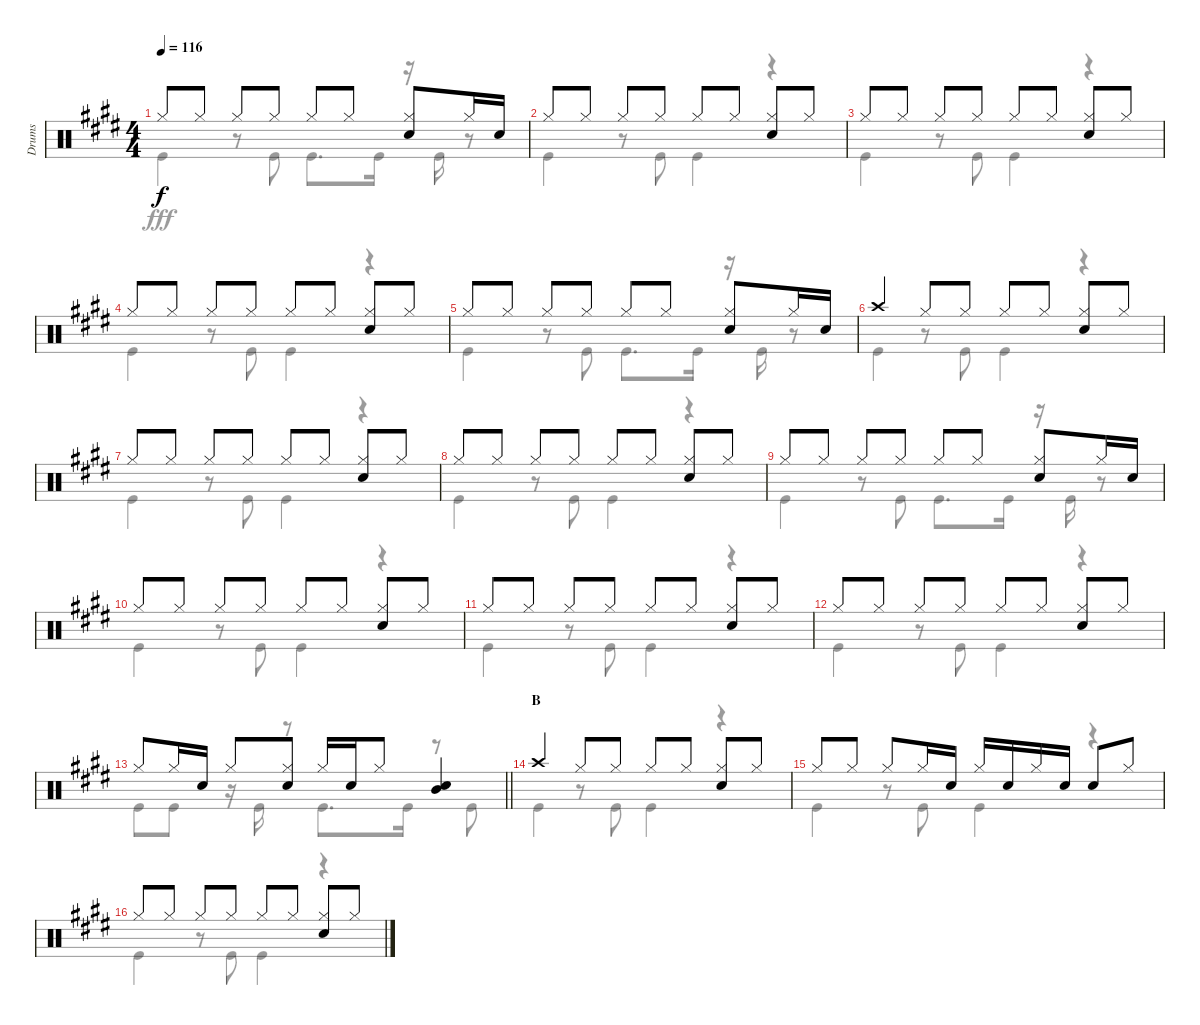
\track ("Drums" "Drums") {instrument percussion}
\staff {score}
\articulation defaults
\voice
\ts (4 4)
\tempo 116
\clef neutral
\ks e "Hi-Hat (closed)".8{dy f} "Hi-Hat (closed)".8 "Hi-Hat (closed)".8 "Hi-Hat (closed)".8 "Hi-Hat (closed)".8 "Hi-Hat (closed)".8
("Hi-Hat (closed)" "Snare (hit) 2").8 "Hi-Hat (closed)".16 "Snare (hit) 2".16 |
"Hi-Hat (closed)".8 "Hi-Hat (closed)".8 "Hi-Hat (closed)".8 "Hi-Hat (closed)".8 "Hi-Hat (closed)".8 "Hi-Hat (closed)".8 ("Hi-Hat (closed)" "Snare (hit) 2").8 "Hi-Hat (closed)".8 |
"Hi-Hat (closed)".8 "Hi-Hat (closed)".8 "Hi-Hat (closed)".8 "Hi-Hat (closed)".8 "Hi-Hat (closed)".8 "Hi-Hat (closed)".8 ("Hi-Hat (closed)" "Snare (hit) 2").8 "Hi-Hat (closed)".8 |
"Hi-Hat (closed)".8 "Hi-Hat (closed)".8 "Hi-Hat (closed)".8 "Hi-Hat (closed)".8 "Hi-Hat (closed)".8 "Hi-Hat (closed)".8 ("Hi-Hat (closed)" "Snare (hit) 2").8 "Hi-Hat (closed)".8 |
"Hi-Hat (closed)".8 "Hi-Hat (closed)".8 "Hi-Hat (closed)".8 "Hi-Hat (closed)".8 "Hi-Hat (closed)".8 "Hi-Hat (closed)".8 ("Hi-Hat (closed)" "Snare (hit) 2").8 "Hi-Hat (closed)".16 "Snare (hit) 2".16 |
"Crash high (hit)".4 "Hi-Hat (closed)".8 "Hi-Hat (closed)".8 "Hi-Hat (closed)".8 "Hi-Hat (closed)".8 ("Hi-Hat (closed)" "Snare (hit) 2").8 "Hi-Hat (closed)".8 |
"Hi-Hat (closed)".8 "Hi-Hat (closed)".8 "Hi-Hat (closed)".8 "Hi-Hat (closed)".8 "Hi-Hat (closed)".8 "Hi-Hat (closed)".8 ("Hi-Hat (closed)" "Snare (hit) 2").8 "Hi-Hat (closed)".8 |
"Hi-Hat (closed)".8 "Hi-Hat (closed)".8 "Hi-Hat (closed)".8 "Hi-Hat (closed)".8 "Hi-Hat (closed)".8 "Hi-Hat (closed)".8 ("Hi-Hat (closed)" "Snare (hit) 2").8 "Hi-Hat (closed)".8 |
"Hi-Hat (closed)".8 "Hi-Hat (closed)".8 "Hi-Hat (closed)".8 "Hi-Hat (closed)".8 "Hi-Hat (closed)".8 "Hi-Hat (closed)".8 ("Hi-Hat (closed)" "Snare (hit) 2").8 "Hi-Hat (closed)".16 "Snare (hit) 2".16 |
"Hi-Hat (closed)".8 "Hi-Hat (closed)".8 "Hi-Hat (closed)".8 "Hi-Hat (closed)".8 "Hi-Hat (closed)".8 "Hi-Hat (closed)".8 ("Hi-Hat (closed)" "Snare (hit) 2").8 "Hi-Hat (closed)".8 |
"Hi-Hat (closed)".8 "Hi-Hat (closed)".8 "Hi-Hat (closed)".8 "Hi-Hat (closed)".8 "Hi-Hat (closed)".8 "Hi-Hat (closed)".8 ("Hi-Hat (closed)" "Snare (hit) 2").8 "Hi-Hat (closed)".8 |
"Hi-Hat (closed)".8 "Hi-Hat (closed)".8 "Hi-Hat (closed)".8 "Hi-Hat (closed)".8 "Hi-Hat (closed)".8 "Hi-Hat (closed)".8 ("Hi-Hat (closed)" "Snare (hit) 2").8 "Hi-Hat (closed)".8 |
\barLineRight lightlight "Hi-Hat (closed)".8 "Hi-Hat (closed)".16 "Snare (hit) 2".16 "Hi-Hat (closed)".8
("Hi-Hat (closed)" "Snare (hit) 2").8 "Hi-Hat (closed)".16 "Snare (hit) 2".16 "Hi-Hat (closed)".8 ("Snare (hit) 2" "Mid Tom (hit)").4 |
\section ("" "B")
"Crash high (hit)".4 "Hi-Hat (closed)".8 "Hi-Hat (closed)".8 "Hi-Hat (closed)".8 "Hi-Hat (closed)".8 ("Hi-Hat (closed)" "Snare (hit) 2").8 "Hi-Hat (closed)".8 |
"Hi-Hat (closed)".8 "Hi-Hat (closed)".8 "Hi-Hat (closed)".8 "Hi-Hat (closed)".16 "Snare (hit) 2".16 "Hi-Hat (closed)".16 "Snare (hit) 2".16 "Hi-Hat (closed)".16 "Snare (hit) 2".16 "Snare (hit) 2".8 "Hi-Hat (closed)".8 |
"Hi-Hat (closed)".8 "Hi-Hat (closed)".8 "Hi-Hat (closed)".8 "Hi-Hat (closed)".8 "Hi-Hat (closed)".8 "Hi-Hat (closed)".8 ("Hi-Hat (closed)" "Snare (hit) 2").8 "Hi-Hat (closed)".8
\voice
\clef neutral
\ottava regular
\simile none
\ks e "Kick (hit)".4{dy fff}
r.8 "Kick (hit)".8 "Kick (hit)".8{d} "Kick (hit)".16 r.16 "Kick (hit)".16 r.8 |
"Kick (hit)".4 r.8 "Kick (hit)".8 "Kick (hit)".4 r.4 |
"Kick (hit)".4 r.8 "Kick (hit)".8 "Kick (hit)".4 r.4 |
"Kick (hit)".4 r.8 "Kick (hit)".8 "Kick (hit)".4 r.4 |
"Kick (hit)".4 r.8 "Kick (hit)".8 "Kick (hit)".8{d} "Kick (hit)".16 r.16 "Kick (hit)".16 r.8 |
"Kick (hit)".4 r.8 "Kick (hit)".8 "Kick (hit)".4 r.4 |
"Kick (hit)".4 r.8 "Kick (hit)".8 "Kick (hit)".4 r.4 |
"Kick (hit)".4 r.8 "Kick (hit)".8 "Kick (hit)".4 r.4 |
"Kick (hit)".4 r.8 "Kick (hit)".8 "Kick (hit)".8{d} "Kick (hit)".16 r.16 "Kick (hit)".16 r.8 |
"Kick (hit)".4 r.8 "Kick (hit)".8 "Kick (hit)".4 r.4 |
"Kick (hit)".4 r.8 "Kick (hit)".8 "Kick (hit)".4 r.4 |
"Kick (hit)".4 r.8 "Kick (hit)".8 "Kick (hit)".4 r.4 |
\barLineRight lightlight "Kick (hit)".8 "Kick (hit)".8
r.16 "Kick (hit)".16 r.8 "Kick (hit)".8{d} "Kick (hit)".16 r.8 "Kick (hit)".8 |
"Kick (hit)".4 r.8 "Kick (hit)".8 "Kick (hit)".4 r.4 |
"Kick (hit)".4 r.8 "Kick (hit)".8 "Kick (hit)".4 r.4 |
"Kick (hit)".4 r.8 "Kick (hit)".8 "Kick (hit)".4 r.4
